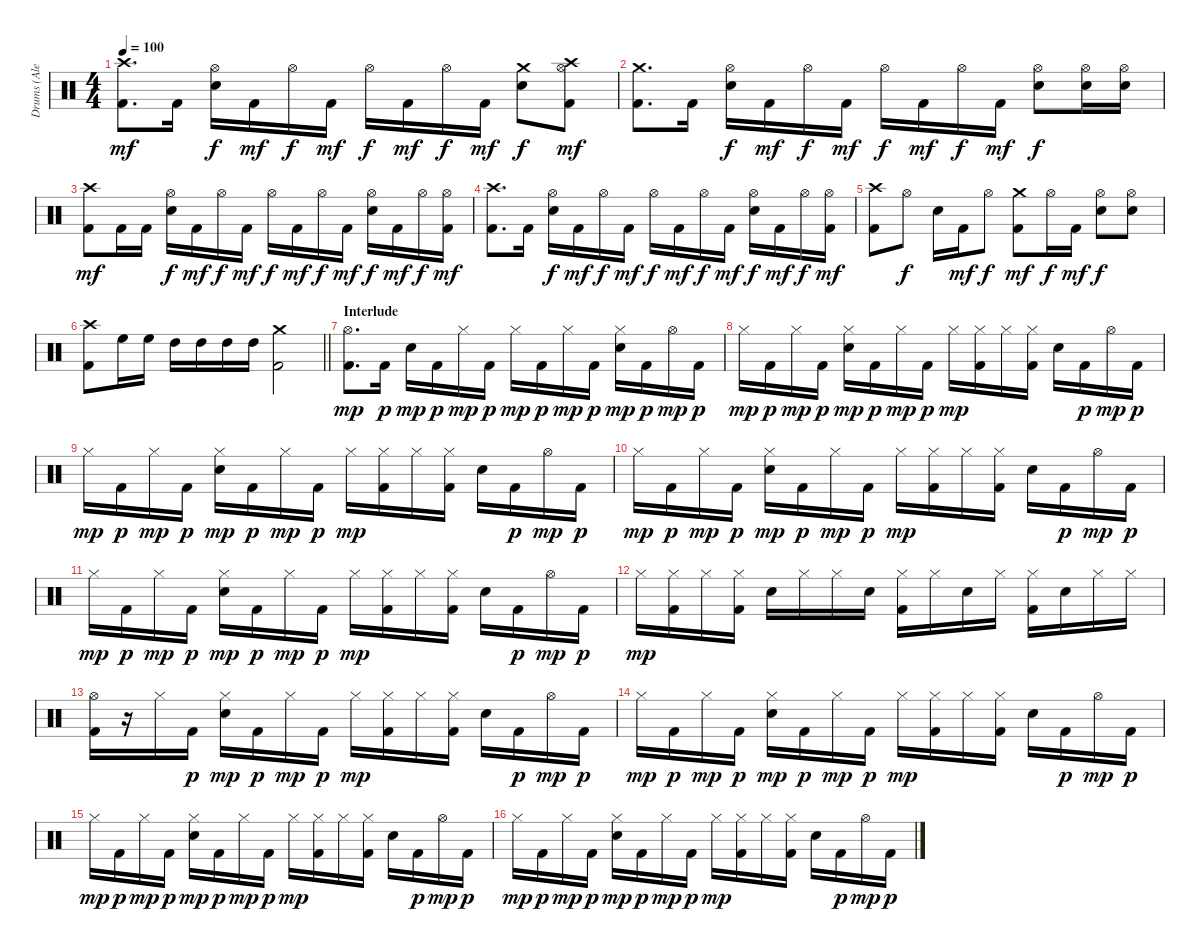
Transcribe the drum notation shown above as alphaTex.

\track ("Drums (Alex Van Halen)" "Drums (Ale") {instrument percussion}
\staff {score}
\articulation defaults
\ts (4 4)
\tempo 100
\clef neutral
\ks c
("Kick (hit) 2" "Crash high (hit)").8{d dy mf} "Kick (hit) 2".16 ("Snare (hit) 2" "Hi-Hat (open)").16{dy f} "Kick (hit) 2".16{dy mf} "Hi-Hat (open)".16{dy f} "Kick (hit) 2".16{dy mf} "Hi-Hat (open)".16{dy f} "Kick (hit) 2".16{dy mf} "Hi-Hat (open)".16{dy f} "Kick (hit) 2".16{dy mf} ("Snare (hit) 2" "Crash medium (hit)").8{dy f} ("Kick (hit) 2" "Hi-Hat (open)" "Crash high (hit)").8{dy mf} |
("Kick (hit) 2" "Crash medium (hit)").8{d} "Kick (hit) 2".16 ("Snare (hit) 2" "Hi-Hat (open)").16{dy f} "Kick (hit) 2".16{dy mf} "Hi-Hat (open)".16{dy f} "Kick (hit) 2".16{dy mf} "Hi-Hat (open)".16{dy f} "Kick (hit) 2".16{dy mf} "Hi-Hat (open)".16{dy f} "Kick (hit) 2".16{dy mf} ("Snare (hit) 2" "Hi-Hat (open)").8{dy f} ("Snare (hit) 2" "Hi-Hat (open)").16 ("Snare (hit) 2" "Hi-Hat (open)").16 |
("Kick (hit) 2" "Crash high (hit)").8{dy mf} "Kick (hit) 2".16 "Kick (hit) 2".16 ("Snare (hit) 2" "Hi-Hat (open)").16{dy f} "Kick (hit) 2".16{dy mf} "Hi-Hat (open)".16{dy f} "Kick (hit) 2".16{dy mf} "Hi-Hat (open)".16{dy f} "Kick (hit) 2".16{dy mf} "Hi-Hat (open)".16{dy f} "Kick (hit) 2".16{dy mf} ("Snare (hit) 2" "Hi-Hat (open)").16{dy f} "Kick (hit) 2".16{dy mf} "Hi-Hat (open)".16{dy f} ("Kick (hit) 2" "Hi-Hat (open)").16{dy mf} |
("Kick (hit) 2" "Crash high (hit)").8{d} "Kick (hit) 2".16 ("Snare (hit) 2" "Hi-Hat (open)").16{dy f} "Kick (hit) 2".16{dy mf} "Hi-Hat (open)".16{dy f} "Kick (hit) 2".16{dy mf} "Hi-Hat (open)".16{dy f} "Kick (hit) 2".16{dy mf} "Hi-Hat (open)".16{dy f} "Kick (hit) 2".16{dy mf} ("Snare (hit) 2" "Hi-Hat (open)").16{dy f} "Kick (hit) 2".16{dy mf} "Hi-Hat (open)".16{dy f} ("Kick (hit) 2" "Hi-Hat (open)").16{dy mf} |
("Kick (hit) 2" "Crash high (hit)").8 "Hi-Hat (open)".8{dy f} "Snare (hit) 2".16 "Kick (hit) 2".16{dy mf} "Hi-Hat (open)".8{dy f} ("Kick (hit) 2" "Crash medium (hit)").8{dy mf} "Hi-Hat (open)".16{dy f} "Kick (hit) 2".16{dy mf} ("Snare (hit) 2" "Hi-Hat (open)").8{dy f} ("Snare (hit) 2" "Hi-Hat (open)").8 |
\barLineRight lightlight
("Kick (hit) 2" "Crash high (hit)").8 "High Floor Tom (hit)".16 "High Floor Tom (hit)".16 "High Tom (hit)".16 "High Tom (hit)".16 "High Tom (hit)".16 "High Tom (hit)".16 ("Kick (hit) 2" "Crash medium (hit)").2 |
\section ("" "Interlude")
("Kick (hit) 2" "Hi-Hat (open)").8{d dy mp} "Kick (hit) 2".16{dy p} "Snare (hit) 2".16{dy mp} "Kick (hit) 2".16{dy p} "Hi-Hat (closed)".16{dy mp} "Kick (hit) 2".16{dy p} "Hi-Hat (closed)".16{dy mp} "Kick (hit) 2".16{dy p} "Hi-Hat (closed)".16{dy mp} "Kick (hit) 2".16{dy p} ("Snare (hit) 2" "Hi-Hat (closed)").16{dy mp} "Kick (hit) 2".16{dy p} "Hi-Hat (open)".16{dy mp} "Kick (hit) 2".16{dy p} |
"Hi-Hat (closed)".16{dy mp} "Kick (hit) 2".16{dy p} "Hi-Hat (closed)".16{dy mp} "Kick (hit) 2".16{dy p} ("Snare (hit) 2" "Hi-Hat (closed)").16{dy mp} "Kick (hit) 2".16{dy p} "Hi-Hat (closed)".16{dy mp} "Kick (hit) 2".16{dy p} "Hi-Hat (closed)".16{dy mp} ("Kick (hit) 2" "Hi-Hat (closed)").16 "Hi-Hat (closed)".16 ("Kick (hit) 2" "Hi-Hat (closed)").16 "Snare (hit) 2".16 "Kick (hit) 2".16{dy p} "Hi-Hat (open)".16{dy mp} "Kick (hit) 2".16{dy p} |
"Hi-Hat (closed)".16{dy mp} "Kick (hit) 2".16{dy p} "Hi-Hat (closed)".16{dy mp} "Kick (hit) 2".16{dy p} ("Snare (hit) 2" "Hi-Hat (closed)").16{dy mp} "Kick (hit) 2".16{dy p} "Hi-Hat (closed)".16{dy mp} "Kick (hit) 2".16{dy p} "Hi-Hat (closed)".16{dy mp} ("Kick (hit) 2" "Hi-Hat (closed)").16 "Hi-Hat (closed)".16 ("Kick (hit) 2" "Hi-Hat (closed)").16 "Snare (hit) 2".16 "Kick (hit) 2".16{dy p} "Hi-Hat (open)".16{dy mp} "Kick (hit) 2".16{dy p} |
"Hi-Hat (closed)".16{dy mp} "Kick (hit) 2".16{dy p} "Hi-Hat (closed)".16{dy mp} "Kick (hit) 2".16{dy p} ("Snare (hit) 2" "Hi-Hat (closed)").16{dy mp} "Kick (hit) 2".16{dy p} "Hi-Hat (closed)".16{dy mp} "Kick (hit) 2".16{dy p} "Hi-Hat (closed)".16{dy mp} ("Kick (hit) 2" "Hi-Hat (closed)").16 "Hi-Hat (closed)".16 ("Kick (hit) 2" "Hi-Hat (closed)").16 "Snare (hit) 2".16 "Kick (hit) 2".16{dy p} "Hi-Hat (open)".16{dy mp} "Kick (hit) 2".16{dy p} |
"Hi-Hat (closed)".16{dy mp} "Kick (hit) 2".16{dy p} "Hi-Hat (closed)".16{dy mp} "Kick (hit) 2".16{dy p} ("Snare (hit) 2" "Hi-Hat (closed)").16{dy mp} "Kick (hit) 2".16{dy p} "Hi-Hat (closed)".16{dy mp} "Kick (hit) 2".16{dy p} "Hi-Hat (closed)".16{dy mp} ("Kick (hit) 2" "Hi-Hat (closed)").16 "Hi-Hat (closed)".16 ("Kick (hit) 2" "Hi-Hat (closed)").16 "Snare (hit) 2".16 "Kick (hit) 2".16{dy p} "Hi-Hat (open)".16{dy mp} "Kick (hit) 2".16{dy p} |
"Hi-Hat (closed)".16{dy mp} ("Kick (hit) 2" "Hi-Hat (closed)").16 "Hi-Hat (closed)".16 ("Kick (hit) 2" "Hi-Hat (closed)").16 "Snare (hit) 2".16 "Hi-Hat (closed)".16 "Hi-Hat (closed)".16 "Snare (hit) 2".16 ("Kick (hit) 2" "Hi-Hat (closed)").16 "Hi-Hat (closed)".16 "Snare (hit) 2".16 "Hi-Hat (closed)".16 ("Kick (hit) 2" "Hi-Hat (closed)").16 "Snare (hit) 2".16 "Hi-Hat (closed)".16 "Hi-Hat (closed)".16 |
("Kick (hit) 2" "Hi-Hat (open)").16 r.16 "Hi-Hat (closed)".16 "Kick (hit) 2".16{dy p} ("Snare (hit) 2" "Hi-Hat (closed)").16{dy mp} "Kick (hit) 2".16{dy p} "Hi-Hat (closed)".16{dy mp} "Kick (hit) 2".16{dy p} "Hi-Hat (closed)".16{dy mp} ("Kick (hit) 2" "Hi-Hat (closed)").16 "Hi-Hat (closed)".16 ("Kick (hit) 2" "Hi-Hat (closed)").16 "Snare (hit) 2".16 "Kick (hit) 2".16{dy p} "Hi-Hat (open)".16{dy mp} "Kick (hit) 2".16{dy p} |
"Hi-Hat (closed)".16{dy mp} "Kick (hit) 2".16{dy p} "Hi-Hat (closed)".16{dy mp} "Kick (hit) 2".16{dy p} ("Snare (hit) 2" "Hi-Hat (closed)").16{dy mp} "Kick (hit) 2".16{dy p} "Hi-Hat (closed)".16{dy mp} "Kick (hit) 2".16{dy p} "Hi-Hat (closed)".16{dy mp} ("Kick (hit) 2" "Hi-Hat (closed)").16 "Hi-Hat (closed)".16 ("Kick (hit) 2" "Hi-Hat (closed)").16 "Snare (hit) 2".16 "Kick (hit) 2".16{dy p} "Hi-Hat (open)".16{dy mp} "Kick (hit) 2".16{dy p} |
"Hi-Hat (closed)".16{dy mp} "Kick (hit) 2".16{dy p} "Hi-Hat (closed)".16{dy mp} "Kick (hit) 2".16{dy p} ("Snare (hit) 2" "Hi-Hat (closed)").16{dy mp} "Kick (hit) 2".16{dy p} "Hi-Hat (closed)".16{dy mp} "Kick (hit) 2".16{dy p} "Hi-Hat (closed)".16{dy mp} ("Kick (hit) 2" "Hi-Hat (closed)").16 "Hi-Hat (closed)".16 ("Kick (hit) 2" "Hi-Hat (closed)").16 "Snare (hit) 2".16 "Kick (hit) 2".16{dy p} "Hi-Hat (open)".16{dy mp} "Kick (hit) 2".16{dy p} |
"Hi-Hat (closed)".16{dy mp} "Kick (hit) 2".16{dy p} "Hi-Hat (closed)".16{dy mp} "Kick (hit) 2".16{dy p} ("Snare (hit) 2" "Hi-Hat (closed)").16{dy mp} "Kick (hit) 2".16{dy p} "Hi-Hat (closed)".16{dy mp} "Kick (hit) 2".16{dy p} "Hi-Hat (closed)".16{dy mp} ("Kick (hit) 2" "Hi-Hat (closed)").16 "Hi-Hat (closed)".16 ("Kick (hit) 2" "Hi-Hat (closed)").16 "Snare (hit) 2".16 "Kick (hit) 2".16{dy p} "Hi-Hat (open)".16{dy mp} "Kick (hit) 2".16{dy p}
